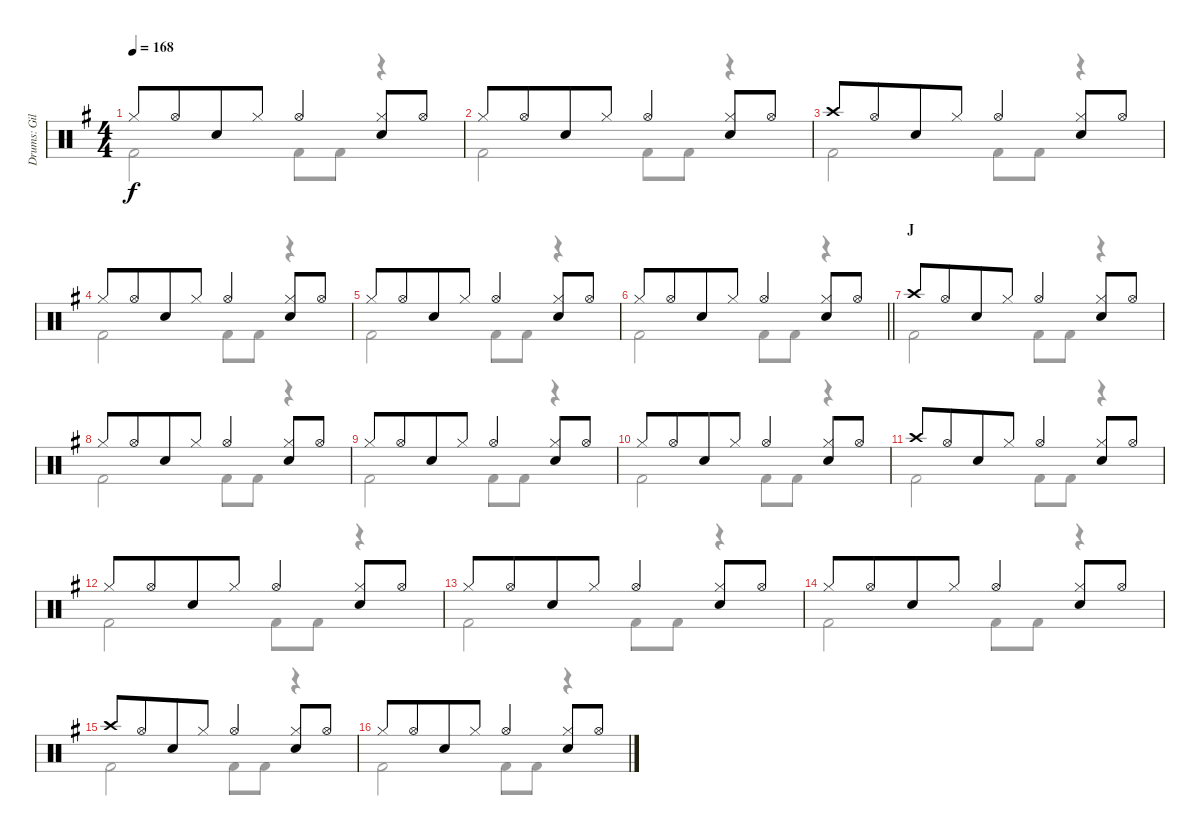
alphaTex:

\track ("Drums: Gil" "Drums: Gil") {instrument percussion}
\staff {score}
\articulation defaults
\voice
\ts (4 4)
\tempo 168
\clef neutral
\ks g "Hi-Hat (closed)".8{dy f} "Hi-Hat (open)".8{beam merge} "Snare (hit) 2".8 "Hi-Hat (closed)".8 "Hi-Hat (open)".4{beam merge}
("Hi-Hat (closed)" "Snare (hit) 2").8 "Hi-Hat (open)".8 |
"Hi-Hat (closed)".8 "Hi-Hat (open)".8{beam merge} "Snare (hit) 2".8 "Hi-Hat (closed)".8 "Hi-Hat (open)".4{beam merge} ("Hi-Hat (closed)" "Snare (hit) 2").8 "Hi-Hat (open)".8 |
"Crash high (hit)".8 "Hi-Hat (open)".8{beam merge} "Snare (hit) 2".8 "Hi-Hat (closed)".8 "Hi-Hat (open)".4{beam merge} ("Hi-Hat (closed)" "Snare (hit) 2").8 "Hi-Hat (open)".8 |
"Hi-Hat (closed)".8 "Hi-Hat (open)".8{beam merge} "Snare (hit) 2".8 "Hi-Hat (closed)".8 "Hi-Hat (open)".4{beam merge} ("Hi-Hat (closed)" "Snare (hit) 2").8 "Hi-Hat (open)".8 |
"Hi-Hat (closed)".8 "Hi-Hat (open)".8{beam merge} "Snare (hit) 2".8 "Hi-Hat (closed)".8 "Hi-Hat (open)".4{beam merge} ("Hi-Hat (closed)" "Snare (hit) 2").8 "Hi-Hat (open)".8 |
\barLineRight lightlight "Hi-Hat (closed)".8 "Hi-Hat (open)".8{beam merge} "Snare (hit) 2".8 "Hi-Hat (closed)".8 "Hi-Hat (open)".4{beam merge}
("Hi-Hat (closed)" "Snare (hit) 2").8 "Hi-Hat (open)".8 |
\section ("" "J")
"Crash high (hit)".8 "Hi-Hat (open)".8{beam merge} "Snare (hit) 2".8 "Hi-Hat (closed)".8 "Hi-Hat (open)".4{beam merge} ("Hi-Hat (closed)" "Snare (hit) 2").8 "Hi-Hat (open)".8 |
"Hi-Hat (closed)".8 "Hi-Hat (open)".8{beam merge} "Snare (hit) 2".8 "Hi-Hat (closed)".8 "Hi-Hat (open)".4{beam merge} ("Hi-Hat (closed)" "Snare (hit) 2").8 "Hi-Hat (open)".8 |
"Hi-Hat (closed)".8 "Hi-Hat (open)".8{beam merge} "Snare (hit) 2".8 "Hi-Hat (closed)".8 "Hi-Hat (open)".4{beam merge} ("Hi-Hat (closed)" "Snare (hit) 2").8 "Hi-Hat (open)".8 |
"Hi-Hat (closed)".8 "Hi-Hat (open)".8{beam merge} "Snare (hit) 2".8 "Hi-Hat (closed)".8 "Hi-Hat (open)".4{beam merge} ("Hi-Hat (closed)" "Snare (hit) 2").8 "Hi-Hat (open)".8 |
"Crash high (hit)".8 "Hi-Hat (open)".8{beam merge} "Snare (hit) 2".8 "Hi-Hat (closed)".8 "Hi-Hat (open)".4{beam merge} ("Hi-Hat (closed)" "Snare (hit) 2").8 "Hi-Hat (open)".8 |
"Hi-Hat (closed)".8 "Hi-Hat (open)".8{beam merge} "Snare (hit) 2".8 "Hi-Hat (closed)".8 "Hi-Hat (open)".4{beam merge} ("Hi-Hat (closed)" "Snare (hit) 2").8 "Hi-Hat (open)".8 |
"Hi-Hat (closed)".8 "Hi-Hat (open)".8{beam merge} "Snare (hit) 2".8 "Hi-Hat (closed)".8 "Hi-Hat (open)".4{beam merge} ("Hi-Hat (closed)" "Snare (hit) 2").8 "Hi-Hat (open)".8 |
"Hi-Hat (closed)".8 "Hi-Hat (open)".8{beam merge} "Snare (hit) 2".8 "Hi-Hat (closed)".8 "Hi-Hat (open)".4{beam merge} ("Hi-Hat (closed)" "Snare (hit) 2").8 "Hi-Hat (open)".8 |
"Crash high (hit)".8 "Hi-Hat (open)".8{beam merge} "Snare (hit) 2".8 "Hi-Hat (closed)".8 "Hi-Hat (open)".4{beam merge} ("Hi-Hat (closed)" "Snare (hit) 2").8 "Hi-Hat (open)".8 |
"Hi-Hat (closed)".8 "Hi-Hat (open)".8{beam merge} "Snare (hit) 2".8 "Hi-Hat (closed)".8 "Hi-Hat (open)".4{beam merge} ("Hi-Hat (closed)" "Snare (hit) 2").8 "Hi-Hat (open)".8
\voice
\clef neutral
\ottava regular
\simile none
\ks g "Kick (hit) 2".2{dy f} "Kick (hit) 2".8 "Kick (hit) 2".8
r.4 |
"Kick (hit) 2".2 "Kick (hit) 2".8 "Kick (hit) 2".8 r.4 |
"Kick (hit) 2".2 "Kick (hit) 2".8 "Kick (hit) 2".8 r.4 |
"Kick (hit) 2".2 "Kick (hit) 2".8 "Kick (hit) 2".8 r.4 |
"Kick (hit) 2".2 "Kick (hit) 2".8 "Kick (hit) 2".8 r.4 |
\barLineRight lightlight "Kick (hit) 2".2 "Kick (hit) 2".8 "Kick (hit) 2".8
r.4 |
"Kick (hit) 2".2 "Kick (hit) 2".8 "Kick (hit) 2".8 r.4 |
"Kick (hit) 2".2 "Kick (hit) 2".8 "Kick (hit) 2".8 r.4 |
"Kick (hit) 2".2 "Kick (hit) 2".8 "Kick (hit) 2".8 r.4 |
"Kick (hit) 2".2 "Kick (hit) 2".8 "Kick (hit) 2".8 r.4 |
"Kick (hit) 2".2 "Kick (hit) 2".8 "Kick (hit) 2".8 r.4 |
"Kick (hit) 2".2 "Kick (hit) 2".8 "Kick (hit) 2".8 r.4 |
"Kick (hit) 2".2 "Kick (hit) 2".8 "Kick (hit) 2".8 r.4 |
"Kick (hit) 2".2 "Kick (hit) 2".8 "Kick (hit) 2".8 r.4 |
"Kick (hit) 2".2 "Kick (hit) 2".8 "Kick (hit) 2".8 r.4 |
"Kick (hit) 2".2 "Kick (hit) 2".8 "Kick (hit) 2".8 r.4
